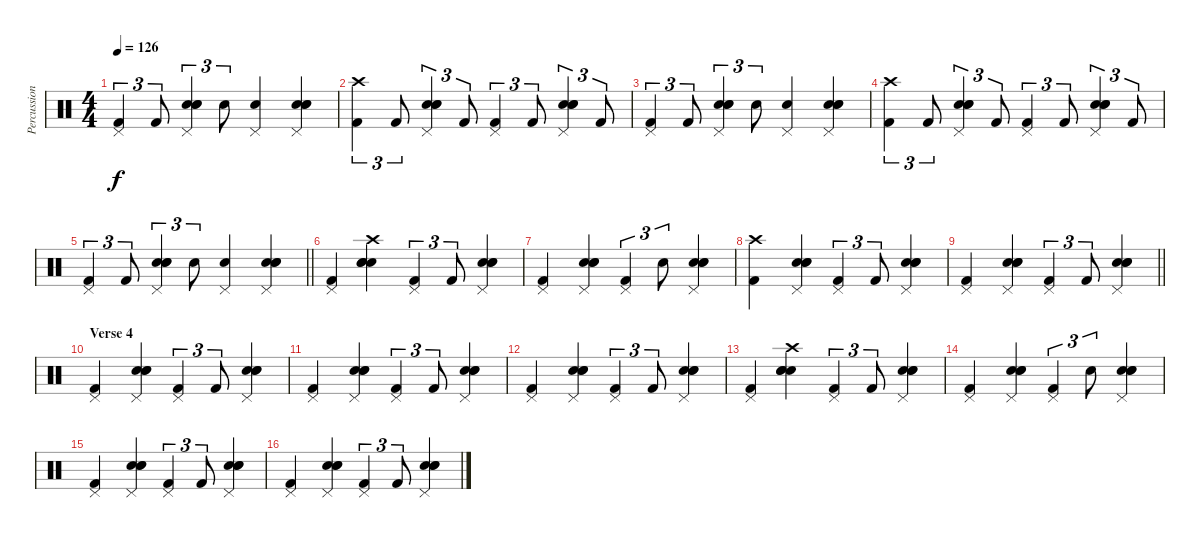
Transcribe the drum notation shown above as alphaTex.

\track ("Percussion" "Percussion") {instrument percussion}
\staff {score}
\articulation defaults
\ts (4 4)
\tempo 126
\clef neutral
\ks c
("Pedal Hi-Hat (hit)" "Kick (hit) 2").4{tu (3 2) dy f} "Kick (hit) 2".8{tu (3 2)} ("Pedal Hi-Hat (hit)" "Electric Snare (hit)" "Hand Clap (hit)" "Hand Clap (hit)").4{tu (3 2)} "Electric Snare (hit)".8{tu (3 2)} ("Pedal Hi-Hat (hit)" "Electric Snare (hit)").4 ("Pedal Hi-Hat (hit)" "Electric Snare (hit)" "Hand Clap (hit)" "Hand Clap (hit)").4 |
("Crash high (hit)" "Kick (hit) 2").4{tu (3 2)} "Kick (hit) 2".8{tu (3 2)} ("Pedal Hi-Hat (hit)" "Electric Snare (hit)" "Hand Clap (hit)" "Hand Clap (hit)").4{tu (3 2)} "Kick (hit) 2".8{tu (3 2)} ("Pedal Hi-Hat (hit)" "Kick (hit) 2").4{tu (3 2)} "Kick (hit) 2".8{tu (3 2)} ("Pedal Hi-Hat (hit)" "Electric Snare (hit)" "Hand Clap (hit)" "Hand Clap (hit)").4{tu (3 2)} "Kick (hit) 2".8{tu (3 2)} |
("Pedal Hi-Hat (hit)" "Kick (hit) 2").4{tu (3 2)} "Kick (hit) 2".8{tu (3 2)} ("Pedal Hi-Hat (hit)" "Electric Snare (hit)" "Hand Clap (hit)" "Hand Clap (hit)").4{tu (3 2)} "Electric Snare (hit)".8{tu (3 2)} ("Pedal Hi-Hat (hit)" "Electric Snare (hit)").4 ("Pedal Hi-Hat (hit)" "Electric Snare (hit)" "Hand Clap (hit)" "Hand Clap (hit)").4 |
("Crash high (hit)" "Kick (hit) 2").4{tu (3 2)} "Kick (hit) 2".8{tu (3 2)} ("Pedal Hi-Hat (hit)" "Electric Snare (hit)" "Hand Clap (hit)" "Hand Clap (hit)").4{tu (3 2)} "Kick (hit) 2".8{tu (3 2)} ("Pedal Hi-Hat (hit)" "Kick (hit) 2").4{tu (3 2)} "Kick (hit) 2".8{tu (3 2)} ("Pedal Hi-Hat (hit)" "Electric Snare (hit)" "Hand Clap (hit)" "Hand Clap (hit)").4{tu (3 2)} "Kick (hit) 2".8{tu (3 2)} |
\barLineRight lightlight
("Pedal Hi-Hat (hit)" "Kick (hit) 2").4{tu (3 2)} "Kick (hit) 2".8{tu (3 2)} ("Pedal Hi-Hat (hit)" "Electric Snare (hit)" "Hand Clap (hit)" "Hand Clap (hit)").4{tu (3 2)} "Electric Snare (hit)".8{tu (3 2)} ("Pedal Hi-Hat (hit)" "Electric Snare (hit)").4 ("Pedal Hi-Hat (hit)" "Electric Snare (hit)" "Hand Clap (hit)" "Hand Clap (hit)").4 |
\section ("" "")
("Pedal Hi-Hat (hit)" "Kick (hit) 2").4 ("Crash high (hit)" "Electric Snare (hit)" "Hand Clap (hit)" "Hand Clap (hit)").4 ("Pedal Hi-Hat (hit)" "Kick (hit) 2").4{tu (3 2)} "Kick (hit) 2".8{tu (3 2)} ("Pedal Hi-Hat (hit)" "Electric Snare (hit)" "Hand Clap (hit)" "Hand Clap (hit)").4 |
("Pedal Hi-Hat (hit)" "Kick (hit) 2").4 ("Pedal Hi-Hat (hit)" "Electric Snare (hit)" "Hand Clap (hit)" "Hand Clap (hit)").4 ("Pedal Hi-Hat (hit)" "Kick (hit) 2").4{tu (3 2)} "Electric Snare (hit)".8{tu (3 2)} ("Pedal Hi-Hat (hit)" "Electric Snare (hit)" "Hand Clap (hit)" "Hand Clap (hit)").4 |
("Crash high (hit)" "Kick (hit) 2").4 ("Pedal Hi-Hat (hit)" "Electric Snare (hit)" "Hand Clap (hit)" "Hand Clap (hit)").4 ("Pedal Hi-Hat (hit)" "Kick (hit) 2").4{tu (3 2)} "Kick (hit) 2".8{tu (3 2)} ("Pedal Hi-Hat (hit)" "Electric Snare (hit)" "Hand Clap (hit)" "Hand Clap (hit)").4 |
\barLineRight lightlight
("Pedal Hi-Hat (hit)" "Kick (hit) 2").4 ("Pedal Hi-Hat (hit)" "Electric Snare (hit)" "Hand Clap (hit)" "Hand Clap (hit)").4 ("Pedal Hi-Hat (hit)" "Kick (hit) 2").4{tu (3 2)} "Kick (hit) 2".8{tu (3 2)} ("Pedal Hi-Hat (hit)" "Electric Snare (hit)" "Hand Clap (hit)" "Hand Clap (hit)").4 |
\section ("" "Verse 4")
("Pedal Hi-Hat (hit)" "Kick (hit) 2").4 ("Pedal Hi-Hat (hit)" "Electric Snare (hit)" "Hand Clap (hit)" "Hand Clap (hit)").4 ("Pedal Hi-Hat (hit)" "Kick (hit) 2").4{tu (3 2)} "Kick (hit) 2".8{tu (3 2)} ("Pedal Hi-Hat (hit)" "Electric Snare (hit)" "Hand Clap (hit)" "Hand Clap (hit)").4 |
("Pedal Hi-Hat (hit)" "Kick (hit) 2").4 ("Pedal Hi-Hat (hit)" "Electric Snare (hit)" "Hand Clap (hit)" "Hand Clap (hit)").4 ("Pedal Hi-Hat (hit)" "Kick (hit) 2").4{tu (3 2)} "Kick (hit) 2".8{tu (3 2)} ("Pedal Hi-Hat (hit)" "Electric Snare (hit)" "Hand Clap (hit)" "Hand Clap (hit)").4 |
("Pedal Hi-Hat (hit)" "Kick (hit) 2").4 ("Pedal Hi-Hat (hit)" "Electric Snare (hit)" "Hand Clap (hit)" "Hand Clap (hit)").4 ("Pedal Hi-Hat (hit)" "Kick (hit) 2").4{tu (3 2)} "Kick (hit) 2".8{tu (3 2)} ("Pedal Hi-Hat (hit)" "Electric Snare (hit)" "Hand Clap (hit)" "Hand Clap (hit)").4 |
("Pedal Hi-Hat (hit)" "Kick (hit) 2").4 ("Crash high (hit)" "Electric Snare (hit)" "Hand Clap (hit)" "Hand Clap (hit)").4 ("Pedal Hi-Hat (hit)" "Kick (hit) 2").4{tu (3 2)} "Kick (hit) 2".8{tu (3 2)} ("Pedal Hi-Hat (hit)" "Electric Snare (hit)" "Hand Clap (hit)" "Hand Clap (hit)").4 |
("Pedal Hi-Hat (hit)" "Kick (hit) 2").4 ("Pedal Hi-Hat (hit)" "Electric Snare (hit)" "Hand Clap (hit)" "Hand Clap (hit)").4 ("Pedal Hi-Hat (hit)" "Kick (hit) 2").4{tu (3 2)} "Electric Snare (hit)".8{tu (3 2)} ("Pedal Hi-Hat (hit)" "Electric Snare (hit)" "Hand Clap (hit)" "Hand Clap (hit)").4 |
("Pedal Hi-Hat (hit)" "Kick (hit) 2").4 ("Pedal Hi-Hat (hit)" "Electric Snare (hit)" "Hand Clap (hit)" "Hand Clap (hit)").4 ("Pedal Hi-Hat (hit)" "Kick (hit) 2").4{tu (3 2)} "Kick (hit) 2".8{tu (3 2)} ("Pedal Hi-Hat (hit)" "Electric Snare (hit)" "Hand Clap (hit)" "Hand Clap (hit)").4 |
("Pedal Hi-Hat (hit)" "Kick (hit) 2").4 ("Pedal Hi-Hat (hit)" "Electric Snare (hit)" "Hand Clap (hit)" "Hand Clap (hit)").4 ("Pedal Hi-Hat (hit)" "Kick (hit) 2").4{tu (3 2)} "Kick (hit) 2".8{tu (3 2)} ("Pedal Hi-Hat (hit)" "Electric Snare (hit)" "Hand Clap (hit)" "Hand Clap (hit)").4
